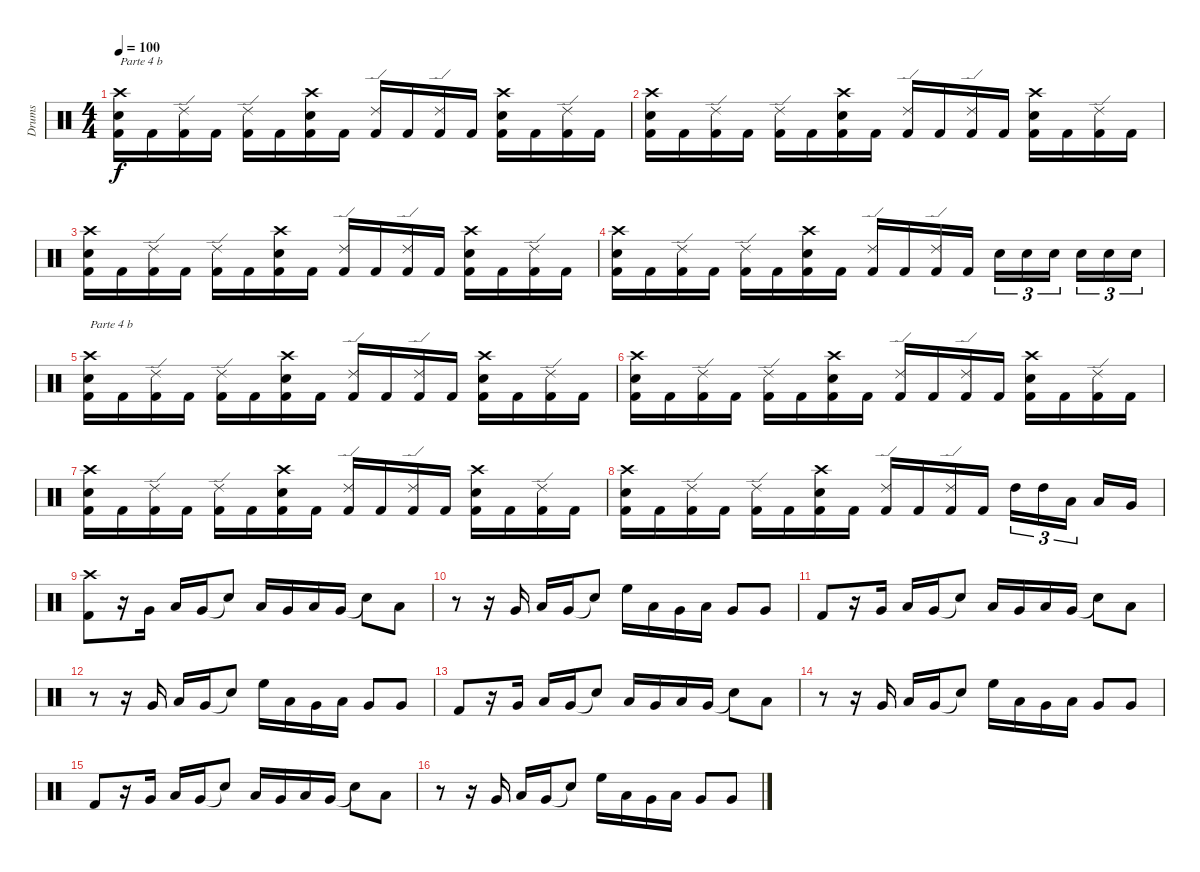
\track ("Drums" "Drums") {instrument percussion}
\staff {score}
\articulation defaults
\ts (4 4)
\tempo 100
\clef neutral
\ks c
("Crash high (hit)" "Electric Snare (hit)" "Kick (hit) 2").16{txt "Parte 4 b" dy f} "Kick (hit) 2".16 ("Ride (edge) 2" "Kick (hit) 2").16 "Kick (hit) 2".16 ("Ride (edge) 2" "Kick (hit) 2").16 "Kick (hit) 2".16 ("Crash high (hit)" "Electric Snare (hit)" "Kick (hit) 2").16 "Kick (hit) 2".16 ("Ride (edge) 2" "Kick (hit) 2").16 "Kick (hit) 2".16 ("Ride (edge) 2" "Kick (hit) 2").16 "Kick (hit) 2".16 ("Crash high (hit)" "Electric Snare (hit)" "Kick (hit) 2").16 "Kick (hit) 2".16 ("Ride (edge) 2" "Kick (hit) 2").16 "Kick (hit) 2".16 |
("Crash high (hit)" "Electric Snare (hit)" "Kick (hit) 2").16 "Kick (hit) 2".16 ("Ride (edge) 2" "Kick (hit) 2").16 "Kick (hit) 2".16 ("Ride (edge) 2" "Kick (hit) 2").16 "Kick (hit) 2".16 ("Crash high (hit)" "Electric Snare (hit)" "Kick (hit) 2").16 "Kick (hit) 2".16 ("Ride (edge) 2" "Kick (hit) 2").16 "Kick (hit) 2".16 ("Ride (edge) 2" "Kick (hit) 2").16 "Kick (hit) 2".16 ("Crash high (hit)" "Electric Snare (hit)" "Kick (hit) 2").16 "Kick (hit) 2".16 ("Ride (edge) 2" "Kick (hit) 2").16 "Kick (hit) 2".16 |
("Crash high (hit)" "Electric Snare (hit)" "Kick (hit) 2").16 "Kick (hit) 2".16 ("Ride (edge) 2" "Kick (hit) 2").16 "Kick (hit) 2".16 ("Ride (edge) 2" "Kick (hit) 2").16 "Kick (hit) 2".16 ("Crash high (hit)" "Electric Snare (hit)" "Kick (hit) 2").16 "Kick (hit) 2".16 ("Ride (edge) 2" "Kick (hit) 2").16 "Kick (hit) 2".16 ("Ride (edge) 2" "Kick (hit) 2").16 "Kick (hit) 2".16 ("Crash high (hit)" "Electric Snare (hit)" "Kick (hit) 2").16 "Kick (hit) 2".16 ("Ride (edge) 2" "Kick (hit) 2").16 "Kick (hit) 2".16 |
("Crash high (hit)" "Electric Snare (hit)" "Kick (hit) 2").16 "Kick (hit) 2".16 ("Ride (edge) 2" "Kick (hit) 2").16 "Kick (hit) 2".16 ("Ride (edge) 2" "Kick (hit) 2").16 "Kick (hit) 2".16 ("Crash high (hit)" "Electric Snare (hit)" "Kick (hit) 2").16 "Kick (hit) 2".16 ("Ride (edge) 2" "Kick (hit) 2").16 "Kick (hit) 2".16 ("Ride (edge) 2" "Kick (hit) 2").16 "Kick (hit) 2".16 "Electric Snare (hit)".16{tu (3 2)} "Electric Snare (hit)".16{tu (3 2)} "Electric Snare (hit)".16{tu (3 2)} "Electric Snare (hit)".16{tu (3 2)} "Electric Snare (hit)".16{tu (3 2)} "Electric Snare (hit)".16{tu (3 2)} |
("Crash high (hit)" "Electric Snare (hit)" "Kick (hit) 2").16{txt "Parte 4 b"} "Kick (hit) 2".16 ("Ride (edge) 2" "Kick (hit) 2").16 "Kick (hit) 2".16 ("Ride (edge) 2" "Kick (hit) 2").16 "Kick (hit) 2".16 ("Crash high (hit)" "Electric Snare (hit)" "Kick (hit) 2").16 "Kick (hit) 2".16 ("Ride (edge) 2" "Kick (hit) 2").16 "Kick (hit) 2".16 ("Ride (edge) 2" "Kick (hit) 2").16 "Kick (hit) 2".16 ("Crash high (hit)" "Electric Snare (hit)" "Kick (hit) 2").16 "Kick (hit) 2".16 ("Ride (edge) 2" "Kick (hit) 2").16 "Kick (hit) 2".16 |
("Crash high (hit)" "Electric Snare (hit)" "Kick (hit) 2").16 "Kick (hit) 2".16 ("Ride (edge) 2" "Kick (hit) 2").16 "Kick (hit) 2".16 ("Ride (edge) 2" "Kick (hit) 2").16 "Kick (hit) 2".16 ("Crash high (hit)" "Electric Snare (hit)" "Kick (hit) 2").16 "Kick (hit) 2".16 ("Ride (edge) 2" "Kick (hit) 2").16 "Kick (hit) 2".16 ("Ride (edge) 2" "Kick (hit) 2").16 "Kick (hit) 2".16 ("Crash high (hit)" "Electric Snare (hit)" "Kick (hit) 2").16 "Kick (hit) 2".16 ("Ride (edge) 2" "Kick (hit) 2").16 "Kick (hit) 2".16 |
("Crash high (hit)" "Electric Snare (hit)" "Kick (hit) 2").16 "Kick (hit) 2".16 ("Ride (edge) 2" "Kick (hit) 2").16 "Kick (hit) 2".16 ("Ride (edge) 2" "Kick (hit) 2").16 "Kick (hit) 2".16 ("Crash high (hit)" "Electric Snare (hit)" "Kick (hit) 2").16 "Kick (hit) 2".16 ("Ride (edge) 2" "Kick (hit) 2").16 "Kick (hit) 2".16 ("Ride (edge) 2" "Kick (hit) 2").16 "Kick (hit) 2".16 ("Crash high (hit)" "Electric Snare (hit)" "Kick (hit) 2").16 "Kick (hit) 2".16 ("Ride (edge) 2" "Kick (hit) 2").16 "Kick (hit) 2".16 |
("Crash high (hit)" "Electric Snare (hit)" "Kick (hit) 2").16 "Kick (hit) 2".16 ("Ride (edge) 2" "Kick (hit) 2").16 "Kick (hit) 2".16 ("Ride (edge) 2" "Kick (hit) 2").16 "Kick (hit) 2".16 ("Crash high (hit)" "Electric Snare (hit)" "Kick (hit) 2").16 "Kick (hit) 2".16 ("Ride (edge) 2" "Kick (hit) 2").16 "Kick (hit) 2".16 ("Ride (edge) 2" "Kick (hit) 2").16 "Kick (hit) 2".16 "High Tom (hit)".16{tu (3 2)} "High Tom (hit)".16{tu (3 2)} "Low Tom (hit)".16{tu (3 2)} "Low Tom (hit)".16 "Very Low Tom (hit)".16 |
("Crash high (hit)" "Kick (hit) 2").8 r.16 "Very Low Tom (hit)".16 "Low Tom (hit)".16 "Very Low Tom (hit)".16 "Snare (hit)"{t}.8 "Low Tom (hit)".16 "Very Low Tom (hit)".16 "Low Tom (hit)".16 "Very Low Tom (hit)".16 "Snare (hit)"{t}.8 "Low Tom (hit)".8 |
r.8 r.16 "Very Low Tom (hit)".16 "Low Tom (hit)".16 "Very Low Tom (hit)".16 "Snare (hit)"{t}.8 "High Floor Tom (hit)".16 "Low Tom (hit)".16 "Very Low Tom (hit)".16 "Low Tom (hit)".16 "Very Low Tom (hit)".8 "Very Low Tom (hit)".8 |
"Kick (hit) 2".8 r.16 "Very Low Tom (hit)".16 "Low Tom (hit)".16 "Very Low Tom (hit)".16 "Snare (hit)"{t}.8 "Low Tom (hit)".16 "Very Low Tom (hit)".16 "Low Tom (hit)".16 "Very Low Tom (hit)".16 "Snare (hit)"{t}.8 "Low Tom (hit)".8 |
r.8 r.16 "Very Low Tom (hit)".16 "Low Tom (hit)".16 "Very Low Tom (hit)".16 "Snare (hit)"{t}.8 "High Floor Tom (hit)".16 "Low Tom (hit)".16 "Very Low Tom (hit)".16 "Low Tom (hit)".16 "Very Low Tom (hit)".8 "Very Low Tom (hit)".8 |
"Kick (hit) 2".8 r.16 "Very Low Tom (hit)".16 "Low Tom (hit)".16 "Very Low Tom (hit)".16 "Snare (hit)"{t}.8 "Low Tom (hit)".16 "Very Low Tom (hit)".16 "Low Tom (hit)".16 "Very Low Tom (hit)".16 "Snare (hit)"{t}.8 "Low Tom (hit)".8 |
r.8 r.16 "Very Low Tom (hit)".16 "Low Tom (hit)".16 "Very Low Tom (hit)".16 "Snare (hit)"{t}.8 "High Floor Tom (hit)".16 "Low Tom (hit)".16 "Very Low Tom (hit)".16 "Low Tom (hit)".16 "Very Low Tom (hit)".8 "Very Low Tom (hit)".8 |
"Kick (hit) 2".8 r.16 "Very Low Tom (hit)".16 "Low Tom (hit)".16 "Very Low Tom (hit)".16 "Snare (hit)"{t}.8 "Low Tom (hit)".16 "Very Low Tom (hit)".16 "Low Tom (hit)".16 "Very Low Tom (hit)".16 "Snare (hit)"{t}.8 "Low Tom (hit)".8 |
r.8 r.16 "Very Low Tom (hit)".16 "Low Tom (hit)".16 "Very Low Tom (hit)".16 "Snare (hit)"{t}.8 "High Floor Tom (hit)".16 "Low Tom (hit)".16 "Very Low Tom (hit)".16 "Low Tom (hit)".16 "Very Low Tom (hit)".8 "Very Low Tom (hit)".8
